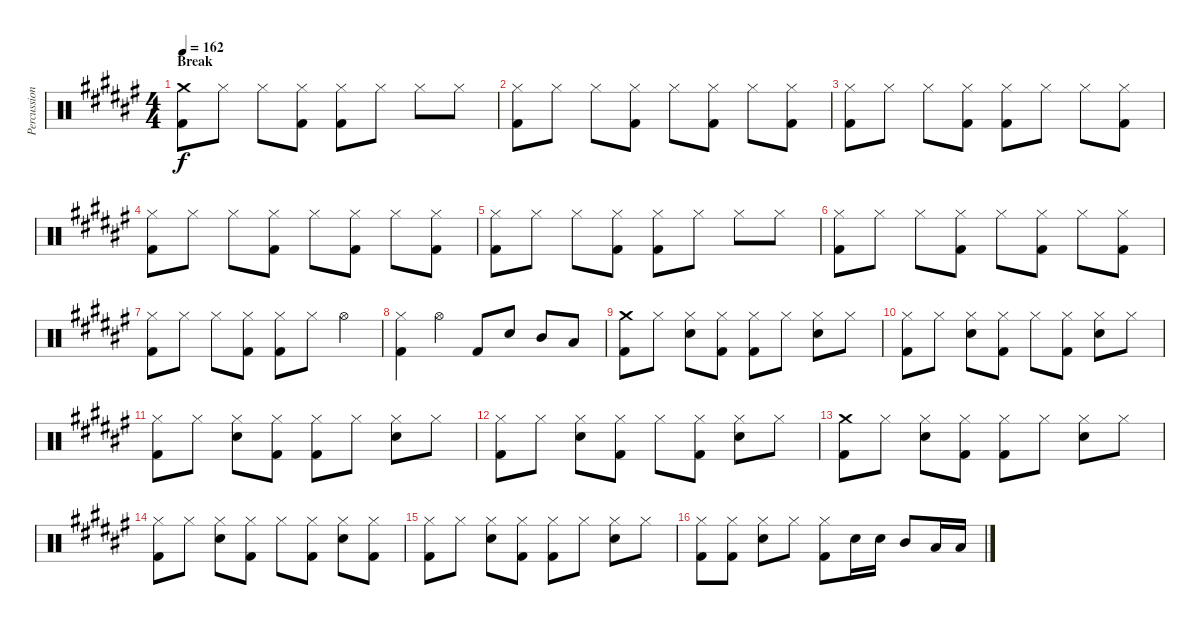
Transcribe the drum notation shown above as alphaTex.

\track ("Percussion" "Percussion") {instrument percussion}
\staff {score}
\articulation defaults
\ts (4 4)
\section ("" "Break")
\tempo 162
\clef neutral
\ks f#
("Crash medium (hit)" "Kick (hit) 2").8{dy f} "Hi-Hat (closed)".8 "Hi-Hat (closed)".8 ("Hi-Hat (closed)" "Kick (hit) 2").8 ("Hi-Hat (closed)" "Kick (hit) 2").8 "Hi-Hat (closed)".8 "Hi-Hat (closed)".8 "Hi-Hat (closed)".8 |
("Hi-Hat (closed)" "Kick (hit) 2").8 "Hi-Hat (closed)".8 "Hi-Hat (closed)".8 ("Hi-Hat (closed)" "Kick (hit) 2").8 "Hi-Hat (closed)".8 ("Hi-Hat (closed)" "Kick (hit) 2").8 "Hi-Hat (closed)".8 ("Hi-Hat (closed)" "Kick (hit) 2").8 |
("Hi-Hat (closed)" "Kick (hit) 2").8 "Hi-Hat (closed)".8 "Hi-Hat (closed)".8 ("Hi-Hat (closed)" "Kick (hit) 2").8 ("Hi-Hat (closed)" "Kick (hit) 2").8 "Hi-Hat (closed)".8 "Hi-Hat (closed)".8 ("Hi-Hat (closed)" "Kick (hit) 2").8 |
("Hi-Hat (closed)" "Kick (hit) 2").8 "Hi-Hat (closed)".8 "Hi-Hat (closed)".8 ("Hi-Hat (closed)" "Kick (hit) 2").8 "Hi-Hat (closed)".8 ("Hi-Hat (closed)" "Kick (hit) 2").8 "Hi-Hat (closed)".8 ("Hi-Hat (closed)" "Kick (hit) 2").8 |
("Hi-Hat (closed)" "Kick (hit) 2").8 "Hi-Hat (closed)".8 "Hi-Hat (closed)".8 ("Hi-Hat (closed)" "Kick (hit) 2").8 ("Hi-Hat (closed)" "Kick (hit) 2").8 "Hi-Hat (closed)".8 "Hi-Hat (closed)".8 "Hi-Hat (closed)".8 |
("Hi-Hat (closed)" "Kick (hit) 2").8 "Hi-Hat (closed)".8 "Hi-Hat (closed)".8 ("Hi-Hat (closed)" "Kick (hit) 2").8 "Hi-Hat (closed)".8 ("Hi-Hat (closed)" "Kick (hit) 2").8 "Hi-Hat (closed)".8 ("Hi-Hat (closed)" "Kick (hit) 2").8 |
("Hi-Hat (closed)" "Kick (hit) 2").8 "Hi-Hat (closed)".8 "Hi-Hat (closed)".8 ("Hi-Hat (closed)" "Kick (hit) 2").8 ("Hi-Hat (closed)" "Kick (hit) 2").8 "Hi-Hat (closed)".8 "Hi-Hat (open)".4 |
("Hi-Hat (closed)" "Kick (hit) 2").4 "Hi-Hat (open)".4 "Kick (hit) 2".8 "Electric Snare (hit)".8 "Mid Tom (hit)".8 "Low Floor Tom (hit)".8 |
("Crash medium (hit)" "Kick (hit) 2").8 "Hi-Hat (closed)".8 ("Hi-Hat (closed)" "Electric Snare (hit)").8 ("Hi-Hat (closed)" "Kick (hit) 2").8 ("Hi-Hat (closed)" "Kick (hit) 2").8 "Hi-Hat (closed)".8 ("Hi-Hat (closed)" "Electric Snare (hit)").8 "Hi-Hat (closed)".8 |
("Hi-Hat (closed)" "Kick (hit) 2").8 "Hi-Hat (closed)".8 ("Hi-Hat (closed)" "Electric Snare (hit)").8 ("Hi-Hat (closed)" "Kick (hit) 2").8 "Hi-Hat (closed)".8 ("Hi-Hat (closed)" "Kick (hit) 2").8 ("Hi-Hat (closed)" "Electric Snare (hit)").8 "Hi-Hat (closed)".8 |
("Hi-Hat (closed)" "Kick (hit) 2").8 "Hi-Hat (closed)".8 ("Hi-Hat (closed)" "Electric Snare (hit)").8 ("Hi-Hat (closed)" "Kick (hit) 2").8 ("Hi-Hat (closed)" "Kick (hit) 2").8 "Hi-Hat (closed)".8 ("Hi-Hat (closed)" "Electric Snare (hit)").8 "Hi-Hat (closed)".8 |
("Hi-Hat (closed)" "Kick (hit) 2").8 "Hi-Hat (closed)".8 ("Hi-Hat (closed)" "Electric Snare (hit)").8 ("Hi-Hat (closed)" "Kick (hit) 2").8 "Hi-Hat (closed)".8 ("Hi-Hat (closed)" "Kick (hit) 2").8 ("Hi-Hat (closed)" "Electric Snare (hit)").8 "Hi-Hat (closed)".8 |
("Crash medium (hit)" "Kick (hit) 2").8 "Hi-Hat (closed)".8 ("Hi-Hat (closed)" "Electric Snare (hit)").8 ("Hi-Hat (closed)" "Kick (hit) 2").8 ("Hi-Hat (closed)" "Kick (hit) 2").8 "Hi-Hat (closed)".8 ("Hi-Hat (closed)" "Electric Snare (hit)").8 "Hi-Hat (closed)".8 |
("Hi-Hat (closed)" "Kick (hit) 2").8 "Hi-Hat (closed)".8 ("Hi-Hat (closed)" "Electric Snare (hit)").8 ("Hi-Hat (closed)" "Kick (hit) 2").8 "Hi-Hat (closed)".8 ("Hi-Hat (closed)" "Kick (hit) 2").8 ("Hi-Hat (closed)" "Electric Snare (hit)").8 ("Hi-Hat (closed)" "Kick (hit) 2").8 |
("Hi-Hat (closed)" "Kick (hit) 2").8 "Hi-Hat (closed)".8 ("Hi-Hat (closed)" "Electric Snare (hit)").8 ("Hi-Hat (closed)" "Kick (hit) 2").8 ("Hi-Hat (closed)" "Kick (hit) 2").8 "Hi-Hat (closed)".8 ("Hi-Hat (closed)" "Electric Snare (hit)").8 "Hi-Hat (closed)".8 |
("Hi-Hat (closed)" "Kick (hit) 2").8 ("Hi-Hat (closed)" "Kick (hit) 2").8 ("Hi-Hat (closed)" "Electric Snare (hit)").8 "Hi-Hat (closed)".8 ("Hi-Hat (closed)" "Kick (hit) 2").8 "Electric Snare (hit)".16 "Electric Snare (hit)".16 "Mid Tom (hit)".8 "Low Floor Tom (hit)".16 "Low Floor Tom (hit)".16
